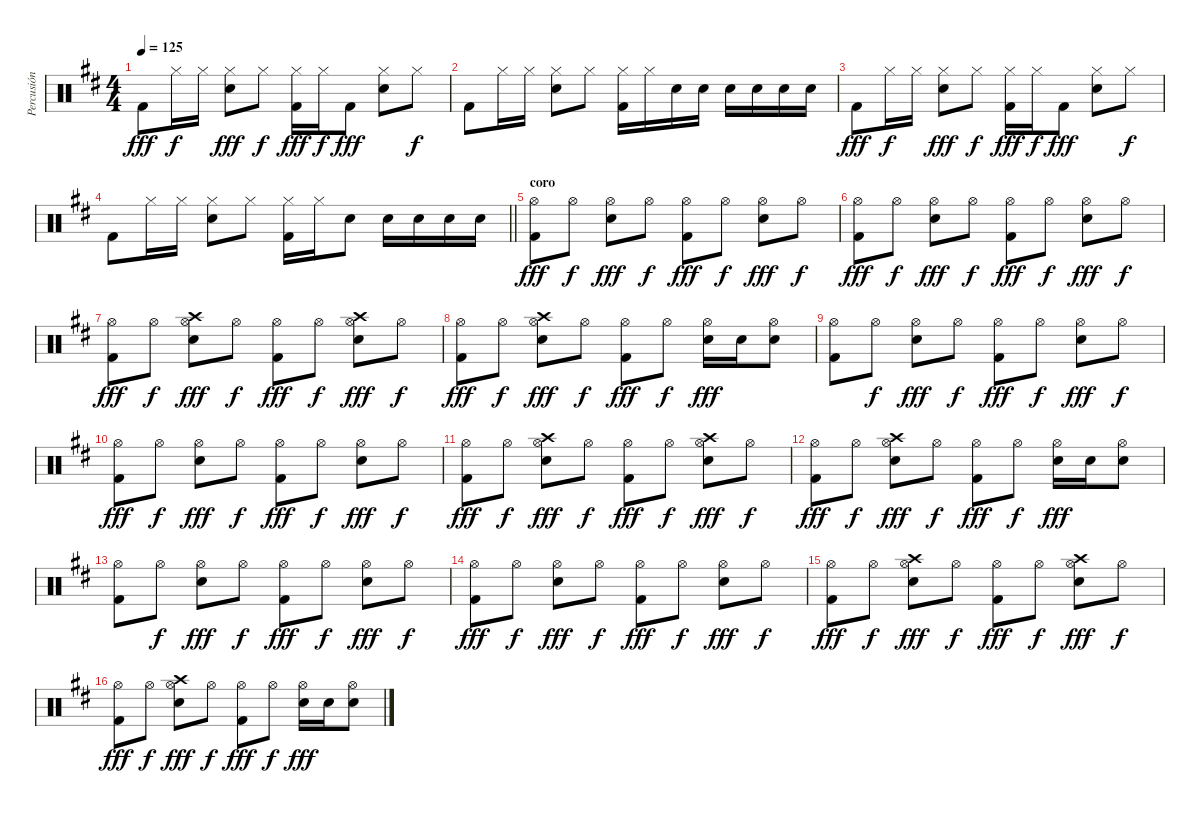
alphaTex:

\track ("Percusión" "Percusión") {instrument percussion}
\staff {score}
\articulation defaults
\ts (4 4)
\tempo 125
\clef neutral
\ks d "Kick (hit) 2".8{dy fff} "Hi-Hat (closed)".16{dy f} "Hi-Hat (closed)".16
("Hi-Hat (closed)" "Electric Snare (hit)").8{dy fff} "Hi-Hat (closed)".8{dy f} ("Hi-Hat (closed)" "Kick (hit) 2").16{dy fff} "Hi-Hat (closed)".16{dy f} "Kick (hit) 2".8{dy fff} ("Hi-Hat (closed)" "Electric Snare (hit)").8 "Hi-Hat (closed)".8{dy f} |
"Kick (hit) 2".8 "Hi-Hat (closed)".16 "Hi-Hat (closed)".16 ("Hi-Hat (closed)" "Electric Snare (hit)").8 "Hi-Hat (closed)".8 ("Hi-Hat (closed)" "Kick (hit) 2").16 "Hi-Hat (closed)".16 "Electric Snare (hit)".16 "Electric Snare (hit)".16 "Electric Snare (hit)".16 "Electric Snare (hit)".16 "Electric Snare (hit)".16 "Electric Snare (hit)".16 |
"Kick (hit) 2".8{dy fff} "Hi-Hat (closed)".16{dy f} "Hi-Hat (closed)".16 ("Hi-Hat (closed)" "Electric Snare (hit)").8{dy fff} "Hi-Hat (closed)".8{dy f} ("Hi-Hat (closed)" "Kick (hit) 2").16{dy fff} "Hi-Hat (closed)".16{dy f} "Kick (hit) 2".8{dy fff} ("Hi-Hat (closed)" "Electric Snare (hit)").8 "Hi-Hat (closed)".8{dy f} |
\barLineRight lightlight "Kick (hit) 2".8 "Hi-Hat (closed)".16 "Hi-Hat (closed)".16
("Hi-Hat (closed)" "Electric Snare (hit)").8 "Hi-Hat (closed)".8 ("Hi-Hat (closed)" "Kick (hit) 2").16 "Hi-Hat (closed)".16 "Electric Snare (hit)".8 "Electric Snare (hit)".16 "Electric Snare (hit)".16 "Electric Snare (hit)".16 "Electric Snare (hit)".16 |
\section ("" "coro")
("Hi-Hat (open)" "Kick (hit) 2").8{dy fff} "Hi-Hat (open)".8{dy f} ("Hi-Hat (open)" "Electric Snare (hit)").8{dy fff} "Hi-Hat (open)".8{dy f} ("Hi-Hat (open)" "Kick (hit) 2").8{dy fff} "Hi-Hat (open)".8{dy f} ("Hi-Hat (open)" "Electric Snare (hit)").8{dy fff} "Hi-Hat (open)".8{dy f} |
("Hi-Hat (open)" "Kick (hit) 2").8{dy fff} "Hi-Hat (open)".8{dy f} ("Hi-Hat (open)" "Electric Snare (hit)").8{dy fff} "Hi-Hat (open)".8{dy f} ("Hi-Hat (open)" "Kick (hit) 2").8{dy fff} "Hi-Hat (open)".8{dy f} ("Hi-Hat (open)" "Electric Snare (hit)").8{dy fff} "Hi-Hat (open)".8{dy f} |
("Hi-Hat (open)" "Kick (hit) 2").8{dy fff} "Hi-Hat (open)".8{dy f} ("Crash high (hit)" "Hi-Hat (open)" "Electric Snare (hit)").8{dy fff} "Hi-Hat (open)".8{dy f} ("Hi-Hat (open)" "Kick (hit) 2").8{dy fff} "Hi-Hat (open)".8{dy f} ("Crash high (hit)" "Hi-Hat (open)" "Electric Snare (hit)").8{dy fff} "Hi-Hat (open)".8{dy f} |
("Hi-Hat (open)" "Kick (hit) 2").8{dy fff} "Hi-Hat (open)".8{dy f} ("Crash high (hit)" "Hi-Hat (open)" "Electric Snare (hit)").8{dy fff} "Hi-Hat (open)".8{dy f} ("Hi-Hat (open)" "Kick (hit) 2").8{dy fff} "Hi-Hat (open)".8{dy f} ("Hi-Hat (open)" "Electric Snare (hit)").16{dy fff} "Electric Snare (hit)".16 ("Hi-Hat (open)" "Electric Snare (hit)").8 |
("Hi-Hat (open)" "Kick (hit) 2").8 "Hi-Hat (open)".8{dy f} ("Hi-Hat (open)" "Electric Snare (hit)").8{dy fff} "Hi-Hat (open)".8{dy f} ("Hi-Hat (open)" "Kick (hit) 2").8{dy fff} "Hi-Hat (open)".8{dy f} ("Hi-Hat (open)" "Electric Snare (hit)").8{dy fff} "Hi-Hat (open)".8{dy f} |
("Hi-Hat (open)" "Kick (hit) 2").8{dy fff} "Hi-Hat (open)".8{dy f} ("Hi-Hat (open)" "Electric Snare (hit)").8{dy fff} "Hi-Hat (open)".8{dy f} ("Hi-Hat (open)" "Kick (hit) 2").8{dy fff} "Hi-Hat (open)".8{dy f} ("Hi-Hat (open)" "Electric Snare (hit)").8{dy fff} "Hi-Hat (open)".8{dy f} |
("Hi-Hat (open)" "Kick (hit) 2").8{dy fff} "Hi-Hat (open)".8{dy f} ("Crash high (hit)" "Hi-Hat (open)" "Electric Snare (hit)").8{dy fff} "Hi-Hat (open)".8{dy f} ("Hi-Hat (open)" "Kick (hit) 2").8{dy fff} "Hi-Hat (open)".8{dy f} ("Crash high (hit)" "Hi-Hat (open)" "Electric Snare (hit)").8{dy fff} "Hi-Hat (open)".8{dy f} |
("Hi-Hat (open)" "Kick (hit) 2").8{dy fff} "Hi-Hat (open)".8{dy f} ("Crash high (hit)" "Hi-Hat (open)" "Electric Snare (hit)").8{dy fff} "Hi-Hat (open)".8{dy f} ("Hi-Hat (open)" "Kick (hit) 2").8{dy fff} "Hi-Hat (open)".8{dy f} ("Hi-Hat (open)" "Electric Snare (hit)").16{dy fff} "Electric Snare (hit)".16 ("Hi-Hat (open)" "Electric Snare (hit)").8 |
("Hi-Hat (open)" "Kick (hit) 2").8 "Hi-Hat (open)".8{dy f} ("Hi-Hat (open)" "Electric Snare (hit)").8{dy fff} "Hi-Hat (open)".8{dy f} ("Hi-Hat (open)" "Kick (hit) 2").8{dy fff} "Hi-Hat (open)".8{dy f} ("Hi-Hat (open)" "Electric Snare (hit)").8{dy fff} "Hi-Hat (open)".8{dy f} |
("Hi-Hat (open)" "Kick (hit) 2").8{dy fff} "Hi-Hat (open)".8{dy f} ("Hi-Hat (open)" "Electric Snare (hit)").8{dy fff} "Hi-Hat (open)".8{dy f} ("Hi-Hat (open)" "Kick (hit) 2").8{dy fff} "Hi-Hat (open)".8{dy f} ("Hi-Hat (open)" "Electric Snare (hit)").8{dy fff} "Hi-Hat (open)".8{dy f} |
("Hi-Hat (open)" "Kick (hit) 2").8{dy fff} "Hi-Hat (open)".8{dy f} ("Crash high (hit)" "Hi-Hat (open)" "Electric Snare (hit)").8{dy fff} "Hi-Hat (open)".8{dy f} ("Hi-Hat (open)" "Kick (hit) 2").8{dy fff} "Hi-Hat (open)".8{dy f} ("Crash high (hit)" "Hi-Hat (open)" "Electric Snare (hit)").8{dy fff} "Hi-Hat (open)".8{dy f} |
("Hi-Hat (open)" "Kick (hit) 2").8{dy fff} "Hi-Hat (open)".8{dy f} ("Crash high (hit)" "Hi-Hat (open)" "Electric Snare (hit)").8{dy fff} "Hi-Hat (open)".8{dy f} ("Hi-Hat (open)" "Kick (hit) 2").8{dy fff} "Hi-Hat (open)".8{dy f} ("Hi-Hat (open)" "Electric Snare (hit)").16{dy fff} "Electric Snare (hit)".16 ("Hi-Hat (open)" "Electric Snare (hit)").8
